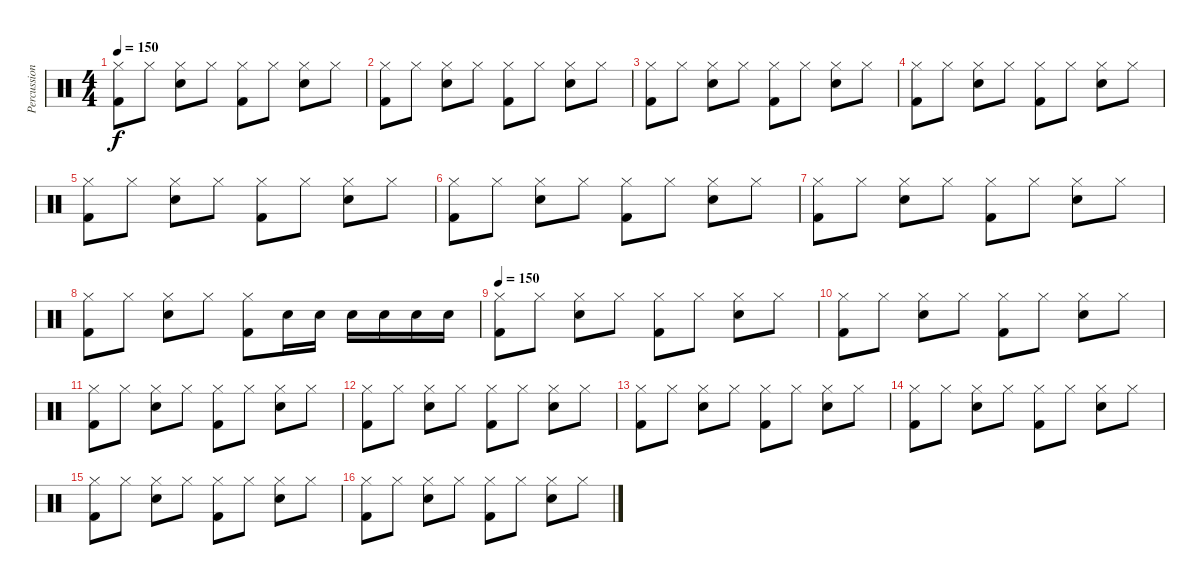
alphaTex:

\track ("Percussion" "Percussion") {instrument percussion}
\staff {score}
\articulation defaults
\ts (4 4)
\tempo 150
\clef neutral
\ks c
("Hi-Hat (closed)" "Kick (hit) 2").8{dy f} "Hi-Hat (closed)".8 ("Hi-Hat (closed)" "Snare (hit) 2").8 "Hi-Hat (closed)".8 ("Hi-Hat (closed)" "Kick (hit) 2").8 "Hi-Hat (closed)".8 ("Hi-Hat (closed)" "Snare (hit) 2").8 "Hi-Hat (closed)".8 |
("Hi-Hat (closed)" "Kick (hit) 2").8 "Hi-Hat (closed)".8 ("Hi-Hat (closed)" "Snare (hit) 2").8 "Hi-Hat (closed)".8 ("Hi-Hat (closed)" "Kick (hit) 2").8 "Hi-Hat (closed)".8 ("Hi-Hat (closed)" "Snare (hit) 2").8 "Hi-Hat (closed)".8 |
("Hi-Hat (closed)" "Kick (hit) 2").8 "Hi-Hat (closed)".8 ("Hi-Hat (closed)" "Snare (hit) 2").8 "Hi-Hat (closed)".8 ("Hi-Hat (closed)" "Kick (hit) 2").8 "Hi-Hat (closed)".8 ("Hi-Hat (closed)" "Snare (hit) 2").8 "Hi-Hat (closed)".8 |
("Hi-Hat (closed)" "Kick (hit) 2").8 "Hi-Hat (closed)".8 ("Hi-Hat (closed)" "Snare (hit) 2").8 "Hi-Hat (closed)".8 ("Hi-Hat (closed)" "Kick (hit) 2").8 "Hi-Hat (closed)".8 ("Hi-Hat (closed)" "Snare (hit) 2").8 "Hi-Hat (closed)".8 |
("Hi-Hat (closed)" "Kick (hit) 2").8 "Hi-Hat (closed)".8 ("Hi-Hat (closed)" "Snare (hit) 2").8 "Hi-Hat (closed)".8 ("Hi-Hat (closed)" "Kick (hit) 2").8 "Hi-Hat (closed)".8 ("Hi-Hat (closed)" "Snare (hit) 2").8 "Hi-Hat (closed)".8 |
("Hi-Hat (closed)" "Kick (hit) 2").8 "Hi-Hat (closed)".8 ("Hi-Hat (closed)" "Snare (hit) 2").8 "Hi-Hat (closed)".8 ("Hi-Hat (closed)" "Kick (hit) 2").8 "Hi-Hat (closed)".8 ("Hi-Hat (closed)" "Snare (hit) 2").8 "Hi-Hat (closed)".8 |
("Hi-Hat (closed)" "Kick (hit) 2").8 "Hi-Hat (closed)".8 ("Hi-Hat (closed)" "Snare (hit) 2").8 "Hi-Hat (closed)".8 ("Hi-Hat (closed)" "Kick (hit) 2").8 "Hi-Hat (closed)".8 ("Hi-Hat (closed)" "Snare (hit) 2").8 "Hi-Hat (closed)".8 |
("Hi-Hat (closed)" "Kick (hit) 2").8 "Hi-Hat (closed)".8 ("Hi-Hat (closed)" "Snare (hit) 2").8 "Hi-Hat (closed)".8 ("Hi-Hat (closed)" "Kick (hit) 2").8 "Snare (hit) 2".16 "Snare (hit) 2".16 "Snare (hit) 2".16 "Snare (hit) 2".16 "Snare (hit) 2".16 "Snare (hit) 2".16 |
\tempo 150
("Hi-Hat (closed)" "Kick (hit) 2").8 "Hi-Hat (closed)".8 ("Hi-Hat (closed)" "Snare (hit) 2").8 "Hi-Hat (closed)".8 ("Hi-Hat (closed)" "Kick (hit) 2").8 "Hi-Hat (closed)".8 ("Hi-Hat (closed)" "Snare (hit) 2").8 "Hi-Hat (closed)".8 |
("Hi-Hat (closed)" "Kick (hit) 2").8 "Hi-Hat (closed)".8 ("Hi-Hat (closed)" "Snare (hit) 2").8 "Hi-Hat (closed)".8 ("Hi-Hat (closed)" "Kick (hit) 2").8 "Hi-Hat (closed)".8 ("Hi-Hat (closed)" "Snare (hit) 2").8 "Hi-Hat (closed)".8 |
("Hi-Hat (closed)" "Kick (hit) 2").8 "Hi-Hat (closed)".8 ("Hi-Hat (closed)" "Snare (hit) 2").8 "Hi-Hat (closed)".8 ("Hi-Hat (closed)" "Kick (hit) 2").8 "Hi-Hat (closed)".8 ("Hi-Hat (closed)" "Snare (hit) 2").8 "Hi-Hat (closed)".8 |
("Hi-Hat (closed)" "Kick (hit) 2").8 "Hi-Hat (closed)".8 ("Hi-Hat (closed)" "Snare (hit) 2").8 "Hi-Hat (closed)".8 ("Hi-Hat (closed)" "Kick (hit) 2").8 "Hi-Hat (closed)".8 ("Hi-Hat (closed)" "Snare (hit) 2").8 "Hi-Hat (closed)".8 |
("Hi-Hat (closed)" "Kick (hit) 2").8 "Hi-Hat (closed)".8 ("Hi-Hat (closed)" "Snare (hit) 2").8 "Hi-Hat (closed)".8 ("Hi-Hat (closed)" "Kick (hit) 2").8 "Hi-Hat (closed)".8 ("Hi-Hat (closed)" "Snare (hit) 2").8 "Hi-Hat (closed)".8 |
("Hi-Hat (closed)" "Kick (hit) 2").8 "Hi-Hat (closed)".8 ("Hi-Hat (closed)" "Snare (hit) 2").8 "Hi-Hat (closed)".8 ("Hi-Hat (closed)" "Kick (hit) 2").8 "Hi-Hat (closed)".8 ("Hi-Hat (closed)" "Snare (hit) 2").8 "Hi-Hat (closed)".8 |
("Hi-Hat (closed)" "Kick (hit) 2").8 "Hi-Hat (closed)".8 ("Hi-Hat (closed)" "Snare (hit) 2").8 "Hi-Hat (closed)".8 ("Hi-Hat (closed)" "Kick (hit) 2").8 "Hi-Hat (closed)".8 ("Hi-Hat (closed)" "Snare (hit) 2").8 "Hi-Hat (closed)".8 |
("Hi-Hat (closed)" "Kick (hit) 2").8 "Hi-Hat (closed)".8 ("Hi-Hat (closed)" "Snare (hit) 2").8 "Hi-Hat (closed)".8 ("Hi-Hat (closed)" "Kick (hit) 2").8 "Hi-Hat (closed)".8 ("Hi-Hat (closed)" "Snare (hit) 2").8 "Hi-Hat (closed)".8
